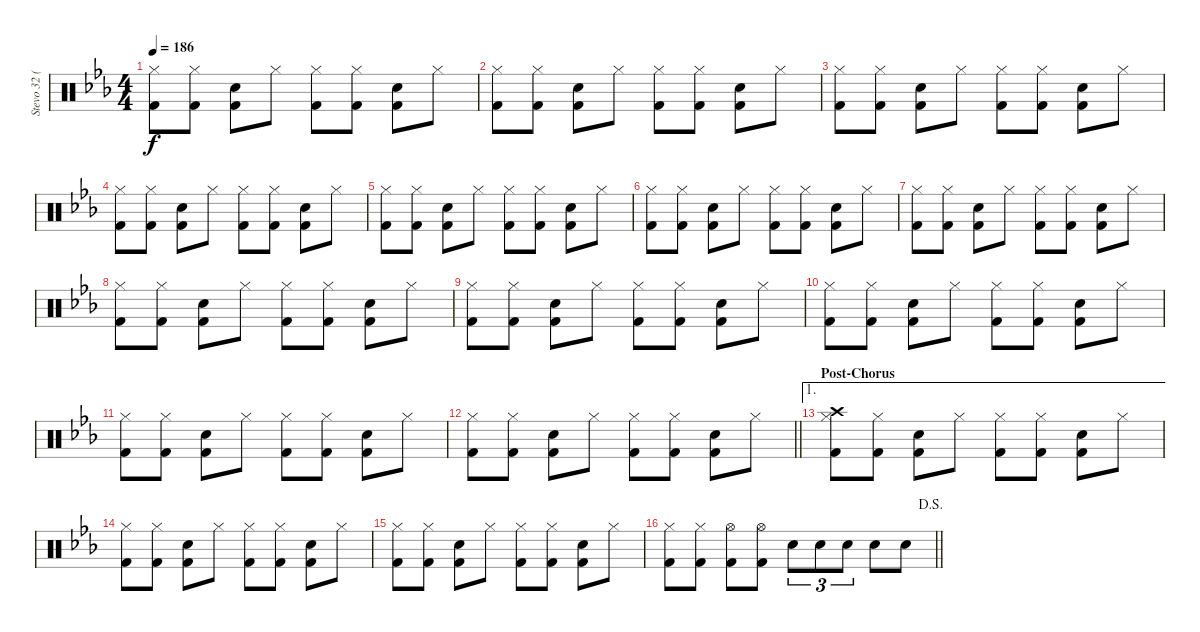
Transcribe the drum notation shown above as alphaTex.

\track ("Stevo 32 (Drums)" "Stevo 32 (") {instrument percussion}
\staff {score}
\articulation defaults
\ts (4 4)
\tempo 186
\clef neutral
\ks eb
("Kick (hit) 2" "Hi-Hat (closed)").8{dy f} ("Kick (hit) 2" "Hi-Hat (closed)").8 ("Kick (hit) 2" "Snare (hit) 2").8 "Hi-Hat (closed)".8 ("Kick (hit) 2" "Hi-Hat (closed)").8 ("Kick (hit) 2" "Hi-Hat (closed)").8 ("Kick (hit) 2" "Snare (hit) 2").8 "Hi-Hat (closed)".8 |
("Kick (hit) 2" "Hi-Hat (closed)").8 ("Kick (hit) 2" "Hi-Hat (closed)").8 ("Kick (hit) 2" "Snare (hit) 2").8 "Hi-Hat (closed)".8 ("Kick (hit) 2" "Hi-Hat (closed)").8 ("Kick (hit) 2" "Hi-Hat (closed)").8 ("Kick (hit) 2" "Snare (hit) 2").8 "Hi-Hat (closed)".8 |
("Kick (hit) 2" "Hi-Hat (closed)").8 ("Kick (hit) 2" "Hi-Hat (closed)").8 ("Kick (hit) 2" "Snare (hit) 2").8 "Hi-Hat (closed)".8 ("Kick (hit) 2" "Hi-Hat (closed)").8 ("Kick (hit) 2" "Hi-Hat (closed)").8 ("Kick (hit) 2" "Snare (hit) 2").8 "Hi-Hat (closed)".8 |
("Kick (hit) 2" "Hi-Hat (closed)").8 ("Kick (hit) 2" "Hi-Hat (closed)").8 ("Kick (hit) 2" "Snare (hit) 2").8 "Hi-Hat (closed)".8 ("Kick (hit) 2" "Hi-Hat (closed)").8 ("Kick (hit) 2" "Hi-Hat (closed)").8 ("Kick (hit) 2" "Snare (hit) 2").8 "Hi-Hat (closed)".8 |
("Kick (hit) 2" "Hi-Hat (closed)").8 ("Kick (hit) 2" "Hi-Hat (closed)").8 ("Kick (hit) 2" "Snare (hit) 2").8 "Hi-Hat (closed)".8 ("Kick (hit) 2" "Hi-Hat (closed)").8 ("Kick (hit) 2" "Hi-Hat (closed)").8 ("Kick (hit) 2" "Snare (hit) 2").8 "Hi-Hat (closed)".8 |
("Kick (hit) 2" "Hi-Hat (closed)").8 ("Kick (hit) 2" "Hi-Hat (closed)").8 ("Kick (hit) 2" "Snare (hit) 2").8 "Hi-Hat (closed)".8 ("Kick (hit) 2" "Hi-Hat (closed)").8 ("Kick (hit) 2" "Hi-Hat (closed)").8 ("Kick (hit) 2" "Snare (hit) 2").8 "Hi-Hat (closed)".8 |
("Kick (hit) 2" "Hi-Hat (closed)").8 ("Kick (hit) 2" "Hi-Hat (closed)").8 ("Kick (hit) 2" "Snare (hit) 2").8 "Hi-Hat (closed)".8 ("Kick (hit) 2" "Hi-Hat (closed)").8 ("Kick (hit) 2" "Hi-Hat (closed)").8 ("Kick (hit) 2" "Snare (hit) 2").8 "Hi-Hat (closed)".8 |
("Kick (hit) 2" "Hi-Hat (closed)").8 ("Kick (hit) 2" "Hi-Hat (closed)").8 ("Kick (hit) 2" "Snare (hit) 2").8 "Hi-Hat (closed)".8 ("Kick (hit) 2" "Hi-Hat (closed)").8 ("Kick (hit) 2" "Hi-Hat (closed)").8 ("Kick (hit) 2" "Snare (hit) 2").8 "Hi-Hat (closed)".8 |
("Kick (hit) 2" "Hi-Hat (closed)").8 ("Kick (hit) 2" "Hi-Hat (closed)").8 ("Kick (hit) 2" "Snare (hit) 2").8 "Hi-Hat (closed)".8 ("Kick (hit) 2" "Hi-Hat (closed)").8 ("Kick (hit) 2" "Hi-Hat (closed)").8 ("Kick (hit) 2" "Snare (hit) 2").8 "Hi-Hat (closed)".8 |
("Kick (hit) 2" "Hi-Hat (closed)").8 ("Kick (hit) 2" "Hi-Hat (closed)").8 ("Kick (hit) 2" "Snare (hit) 2").8 "Hi-Hat (closed)".8 ("Kick (hit) 2" "Hi-Hat (closed)").8 ("Kick (hit) 2" "Hi-Hat (closed)").8 ("Kick (hit) 2" "Snare (hit) 2").8 "Hi-Hat (closed)".8 |
("Kick (hit) 2" "Hi-Hat (closed)").8 ("Kick (hit) 2" "Hi-Hat (closed)").8 ("Kick (hit) 2" "Snare (hit) 2").8 "Hi-Hat (closed)".8 ("Kick (hit) 2" "Hi-Hat (closed)").8 ("Kick (hit) 2" "Hi-Hat (closed)").8 ("Kick (hit) 2" "Snare (hit) 2").8 "Hi-Hat (closed)".8 |
\barLineRight lightlight
("Kick (hit) 2" "Hi-Hat (closed)").8 ("Kick (hit) 2" "Hi-Hat (closed)").8 ("Kick (hit) 2" "Snare (hit) 2").8 "Hi-Hat (closed)".8 ("Kick (hit) 2" "Hi-Hat (closed)").8 ("Kick (hit) 2" "Hi-Hat (closed)").8 ("Kick (hit) 2" "Snare (hit) 2").8 "Hi-Hat (closed)".8 |
\ae 1
\section ("" "Post-Chorus")
("Kick (hit) 2" "Crash high (hit)" "Hi-Hat (closed)").8 ("Kick (hit) 2" "Hi-Hat (closed)").8 ("Kick (hit) 2" "Snare (hit) 2").8 "Hi-Hat (closed)".8 ("Kick (hit) 2" "Hi-Hat (closed)").8 ("Kick (hit) 2" "Hi-Hat (closed)").8 ("Kick (hit) 2" "Snare (hit) 2").8 "Hi-Hat (closed)".8 |
("Kick (hit) 2" "Hi-Hat (closed)").8 ("Kick (hit) 2" "Hi-Hat (closed)").8 ("Kick (hit) 2" "Snare (hit) 2").8 "Hi-Hat (closed)".8 ("Kick (hit) 2" "Hi-Hat (closed)").8 ("Kick (hit) 2" "Hi-Hat (closed)").8 ("Kick (hit) 2" "Snare (hit) 2").8 "Hi-Hat (closed)".8 |
("Kick (hit) 2" "Hi-Hat (closed)").8 ("Kick (hit) 2" "Hi-Hat (closed)").8 ("Kick (hit) 2" "Snare (hit) 2").8 "Hi-Hat (closed)".8 ("Kick (hit) 2" "Hi-Hat (closed)").8 ("Kick (hit) 2" "Hi-Hat (closed)").8 ("Kick (hit) 2" "Snare (hit) 2").8 "Hi-Hat (closed)".8 |
\jump dalsegno
\barLineRight lightlight
("Kick (hit) 2" "Hi-Hat (closed)").8 ("Kick (hit) 2" "Hi-Hat (closed)").8 ("Kick (hit) 2" "Hi-Hat (open)").8 ("Kick (hit) 2" "Hi-Hat (open)").8 "Snare (hit) 2".8{tu (3 2)} "Snare (hit) 2".8{tu (3 2)} "Snare (hit) 2".8{tu (3 2)} "Snare (hit) 2".8 "Snare (hit) 2".8
